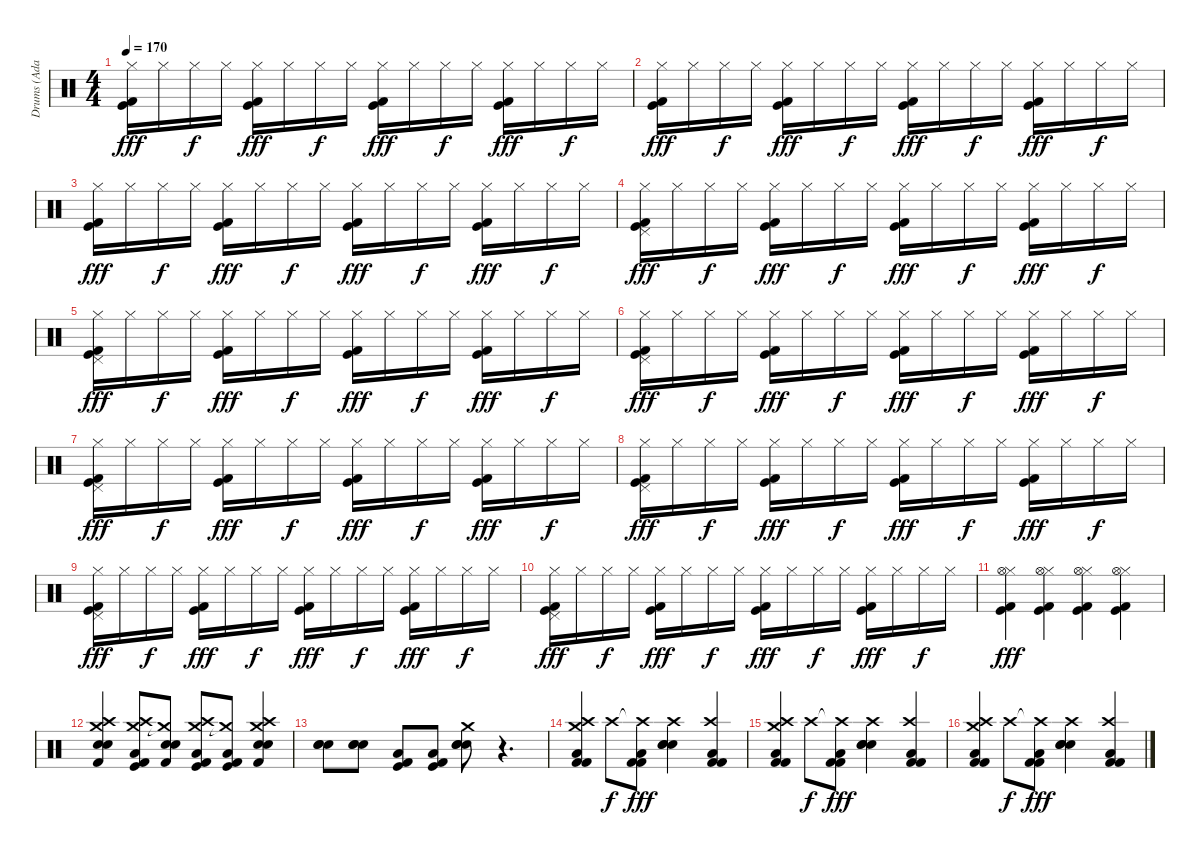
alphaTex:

\track ("Drums (Adam)" "Drums (Ada") {instrument percussion}
\staff {score}
\articulation defaults
\ts (4 4)
\tempo 170
\clef neutral
\ks c
("Hi-Hat (closed)" "Kick (hit)" "Kick (hit) 2").16{dy fff} "Hi-Hat (closed)".16 "Hi-Hat (closed)".16{dy f} "Hi-Hat (closed)".16 ("Hi-Hat (closed)" "Kick (hit)" "Kick (hit) 2").16{dy fff} "Hi-Hat (closed)".16 "Hi-Hat (closed)".16{dy f} "Hi-Hat (closed)".16 ("Hi-Hat (closed)" "Kick (hit)" "Kick (hit) 2").16{dy fff} "Hi-Hat (closed)".16 "Hi-Hat (closed)".16{dy f} "Hi-Hat (closed)".16 ("Hi-Hat (closed)" "Kick (hit)" "Kick (hit) 2").16{dy fff} "Hi-Hat (closed)".16 "Hi-Hat (closed)".16{dy f} "Hi-Hat (closed)".16 |
("Hi-Hat (closed)" "Kick (hit)" "Kick (hit) 2").16{dy fff} "Hi-Hat (closed)".16 "Hi-Hat (closed)".16{dy f} "Hi-Hat (closed)".16 ("Hi-Hat (closed)" "Kick (hit)" "Kick (hit) 2").16{dy fff} "Hi-Hat (closed)".16 "Hi-Hat (closed)".16{dy f} "Hi-Hat (closed)".16 ("Hi-Hat (closed)" "Kick (hit)" "Kick (hit) 2").16{dy fff} "Hi-Hat (closed)".16 "Hi-Hat (closed)".16{dy f} "Hi-Hat (closed)".16 ("Hi-Hat (closed)" "Kick (hit)" "Kick (hit) 2").16{dy fff} "Hi-Hat (closed)".16 "Hi-Hat (closed)".16{dy f} "Hi-Hat (closed)".16 |
("Hi-Hat (closed)" "Kick (hit)" "Kick (hit) 2").16{dy fff} "Hi-Hat (closed)".16 "Hi-Hat (closed)".16{dy f} "Hi-Hat (closed)".16 ("Hi-Hat (closed)" "Kick (hit)" "Kick (hit) 2").16{dy fff} "Hi-Hat (closed)".16 "Hi-Hat (closed)".16{dy f} "Hi-Hat (closed)".16 ("Hi-Hat (closed)" "Kick (hit)" "Kick (hit) 2").16{dy fff} "Hi-Hat (closed)".16 "Hi-Hat (closed)".16{dy f} "Hi-Hat (closed)".16 ("Hi-Hat (closed)" "Kick (hit)" "Kick (hit) 2").16{dy fff} "Hi-Hat (closed)".16 "Hi-Hat (closed)".16{dy f} "Hi-Hat (closed)".16 |
("Pedal Hi-Hat (hit)" "Hi-Hat (closed)" "Kick (hit)" "Kick (hit) 2").16{dy fff} "Hi-Hat (closed)".16 "Hi-Hat (closed)".16{dy f} "Hi-Hat (closed)".16 ("Hi-Hat (closed)" "Kick (hit)" "Kick (hit) 2").16{dy fff} "Hi-Hat (closed)".16 "Hi-Hat (closed)".16{dy f} "Hi-Hat (closed)".16 ("Hi-Hat (closed)" "Kick (hit)" "Kick (hit) 2").16{dy fff} "Hi-Hat (closed)".16 "Hi-Hat (closed)".16{dy f} "Hi-Hat (closed)".16 ("Hi-Hat (closed)" "Kick (hit)" "Kick (hit) 2").16{dy fff} "Hi-Hat (closed)".16 "Hi-Hat (closed)".16{dy f} "Hi-Hat (closed)".16 |
("Pedal Hi-Hat (hit)" "Hi-Hat (closed)" "Kick (hit)" "Kick (hit) 2").16{dy fff} "Hi-Hat (closed)".16 "Hi-Hat (closed)".16{dy f} "Hi-Hat (closed)".16 ("Hi-Hat (closed)" "Kick (hit)" "Kick (hit) 2").16{dy fff} "Hi-Hat (closed)".16 "Hi-Hat (closed)".16{dy f} "Hi-Hat (closed)".16 ("Hi-Hat (closed)" "Kick (hit)" "Kick (hit) 2").16{dy fff} "Hi-Hat (closed)".16 "Hi-Hat (closed)".16{dy f} "Hi-Hat (closed)".16 ("Hi-Hat (closed)" "Kick (hit)" "Kick (hit) 2").16{dy fff} "Hi-Hat (closed)".16 "Hi-Hat (closed)".16{dy f} "Hi-Hat (closed)".16 |
("Pedal Hi-Hat (hit)" "Hi-Hat (closed)" "Kick (hit)" "Kick (hit) 2").16{dy fff} "Hi-Hat (closed)".16 "Hi-Hat (closed)".16{dy f} "Hi-Hat (closed)".16 ("Hi-Hat (closed)" "Kick (hit)" "Kick (hit) 2").16{dy fff} "Hi-Hat (closed)".16 "Hi-Hat (closed)".16{dy f} "Hi-Hat (closed)".16 ("Hi-Hat (closed)" "Kick (hit)" "Kick (hit) 2").16{dy fff} "Hi-Hat (closed)".16 "Hi-Hat (closed)".16{dy f} "Hi-Hat (closed)".16 ("Hi-Hat (closed)" "Kick (hit)" "Kick (hit) 2").16{dy fff} "Hi-Hat (closed)".16 "Hi-Hat (closed)".16{dy f} "Hi-Hat (closed)".16 |
("Pedal Hi-Hat (hit)" "Hi-Hat (closed)" "Kick (hit)" "Kick (hit) 2").16{dy fff} "Hi-Hat (closed)".16 "Hi-Hat (closed)".16{dy f} "Hi-Hat (closed)".16 ("Hi-Hat (closed)" "Kick (hit)" "Kick (hit) 2").16{dy fff} "Hi-Hat (closed)".16 "Hi-Hat (closed)".16{dy f} "Hi-Hat (closed)".16 ("Hi-Hat (closed)" "Kick (hit)" "Kick (hit) 2").16{dy fff} "Hi-Hat (closed)".16 "Hi-Hat (closed)".16{dy f} "Hi-Hat (closed)".16 ("Hi-Hat (closed)" "Kick (hit)" "Kick (hit) 2").16{dy fff} "Hi-Hat (closed)".16 "Hi-Hat (closed)".16{dy f} "Hi-Hat (closed)".16 |
("Pedal Hi-Hat (hit)" "Hi-Hat (closed)" "Kick (hit)" "Kick (hit) 2").16{dy fff} "Hi-Hat (closed)".16 "Hi-Hat (closed)".16{dy f} "Hi-Hat (closed)".16 ("Hi-Hat (closed)" "Kick (hit)" "Kick (hit) 2").16{dy fff} "Hi-Hat (closed)".16 "Hi-Hat (closed)".16{dy f} "Hi-Hat (closed)".16 ("Hi-Hat (closed)" "Kick (hit)" "Kick (hit) 2").16{dy fff} "Hi-Hat (closed)".16 "Hi-Hat (closed)".16{dy f} "Hi-Hat (closed)".16 ("Hi-Hat (closed)" "Kick (hit)" "Kick (hit) 2").16{dy fff} "Hi-Hat (closed)".16 "Hi-Hat (closed)".16{dy f} "Hi-Hat (closed)".16 |
("Pedal Hi-Hat (hit)" "Hi-Hat (closed)" "Kick (hit)" "Kick (hit) 2").16{dy fff} "Hi-Hat (closed)".16 "Hi-Hat (closed)".16{dy f} "Hi-Hat (closed)".16 ("Hi-Hat (closed)" "Kick (hit)" "Kick (hit) 2").16{dy fff} "Hi-Hat (closed)".16 "Hi-Hat (closed)".16{dy f} "Hi-Hat (closed)".16 ("Hi-Hat (closed)" "Kick (hit)" "Kick (hit) 2").16{dy fff} "Hi-Hat (closed)".16 "Hi-Hat (closed)".16{dy f} "Hi-Hat (closed)".16 ("Hi-Hat (closed)" "Kick (hit)" "Kick (hit) 2").16{dy fff} "Hi-Hat (closed)".16 "Hi-Hat (closed)".16{dy f} "Hi-Hat (closed)".16 |
("Pedal Hi-Hat (hit)" "Hi-Hat (closed)" "Kick (hit)" "Kick (hit) 2").16{dy fff} "Hi-Hat (closed)".16 "Hi-Hat (closed)".16{dy f} "Hi-Hat (closed)".16 ("Hi-Hat (closed)" "Kick (hit)" "Kick (hit) 2").16{dy fff} "Hi-Hat (closed)".16 "Hi-Hat (closed)".16{dy f} "Hi-Hat (closed)".16 ("Hi-Hat (closed)" "Kick (hit)" "Kick (hit) 2").16{dy fff} "Hi-Hat (closed)".16 "Hi-Hat (closed)".16{dy f} "Hi-Hat (closed)".16 ("Hi-Hat (closed)" "Kick (hit)" "Kick (hit) 2").16{dy fff} "Hi-Hat (closed)".16 "Hi-Hat (closed)".16{dy f} "Hi-Hat (closed)".16 |
("Hi-Hat (closed)" "Hi-Hat (open)" "Kick (hit)" "Kick (hit) 2").4{dy fff} ("Hi-Hat (closed)" "Hi-Hat (open)" "Kick (hit)" "Kick (hit) 2").4 ("Hi-Hat (closed)" "Hi-Hat (open)" "Kick (hit)" "Kick (hit) 2").4 ("Hi-Hat (closed)" "Hi-Hat (open)" "Kick (hit)" "Kick (hit) 2").4 |
("Crash high (hit)" "Crash medium (hit)" "Snare (hit) 2" "Electric Snare (hit)" "Kick (hit) 2").4 ("Crash high (hit)" "Crash medium (hit)" "Low Tom (hit)" "Kick (hit)" "Kick (hit) 2").8 ("Crash medium (hit)"{t} "Snare (hit) 2" "Electric Snare (hit)" "Kick (hit) 2").8 ("Crash high (hit)" "Crash medium (hit)" "Low Tom (hit)" "Kick (hit)" "Kick (hit) 2").8 ("Crash medium (hit)"{t} "Low Tom (hit)" "Kick (hit)" "Kick (hit) 2").8 ("Crash high (hit)" "Crash medium (hit)" "Snare (hit) 2" "Electric Snare (hit)" "Kick (hit) 2").4 |
("Snare (hit) 2" "Electric Snare (hit)" "Electric Snare (hit)").8 ("Snare (hit) 2" "Electric Snare (hit)" "Electric Snare (hit)").8 ("Low Tom (hit)" "Kick (hit)" "Kick (hit) 2").8 ("Low Tom (hit)" "Kick (hit)" "Kick (hit) 2").8 ("Crash medium (hit)" "Snare (hit) 2" "Electric Snare (hit)" "Electric Snare (hit)").8 r.4{d} |
("Crash medium (hit)" "Crash high (hit)" "Low Tom (hit)" "Kick (hit) 2" "Kick (hit) 2").4 "Crash high (hit)".8{dy f} ("Crash high (hit)"{t} "Low Tom (hit)" "Kick (hit) 2" "Kick (hit) 2").8{dy fff} ("Crash high (hit)" "Snare (hit) 2" "Electric Snare (hit)" "Snare (hit) 2").4 ("Crash high (hit)" "Low Tom (hit)" "Kick (hit) 2" "Kick (hit) 2").4 |
("Crash medium (hit)" "Crash high (hit)" "Low Tom (hit)" "Kick (hit) 2" "Kick (hit) 2").4 "Crash high (hit)".8{dy f} ("Crash high (hit)"{t} "Low Tom (hit)" "Kick (hit) 2" "Kick (hit) 2").8{dy fff} ("Crash high (hit)" "Snare (hit) 2" "Electric Snare (hit)" "Snare (hit) 2").4 ("Crash high (hit)" "Low Tom (hit)" "Kick (hit) 2" "Kick (hit) 2").4 |
("Crash medium (hit)" "Crash high (hit)" "Low Tom (hit)" "Kick (hit) 2" "Kick (hit) 2").4 "Crash high (hit)".8{dy f} ("Crash high (hit)"{t} "Low Tom (hit)" "Kick (hit) 2" "Kick (hit) 2").8{dy fff} ("Crash high (hit)" "Snare (hit) 2" "Electric Snare (hit)" "Snare (hit) 2").4 ("Crash high (hit)" "Low Tom (hit)" "Kick (hit) 2" "Kick (hit) 2").4
